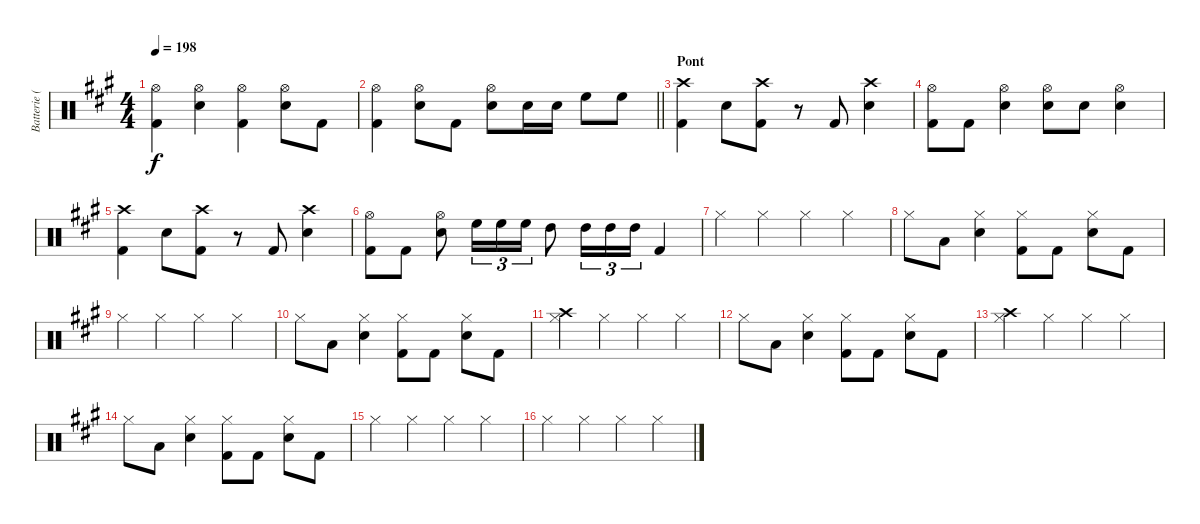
\track ("Batterie (Phil Roud)" "Batterie (") {instrument percussion}
\staff {score}
\articulation defaults
\ts (4 4)
\tempo 198
\clef neutral
\ks a
("Hi-Hat (open)" "Kick (hit) 2").4{dy f} ("Hi-Hat (open)" "Snare (hit) 2").4 ("Hi-Hat (open)" "Kick (hit) 2").4 ("Hi-Hat (open)" "Snare (hit) 2").8 "Kick (hit) 2".8 |
\barLineRight lightlight
("Hi-Hat (open)" "Kick (hit) 2").4 ("Hi-Hat (open)" "Snare (hit) 2").8 "Kick (hit) 2".8 ("Hi-Hat (open)" "Snare (hit) 2").8 "Snare (hit) 2".16 "Snare (hit) 2".16 "High Floor Tom (hit)".8 "High Floor Tom (hit)".8 |
\section ("" "Pont")
("Crash high (hit)" "Kick (hit) 2").4 "Snare (hit) 2".8 ("Crash high (hit)" "Kick (hit) 2").8 r.8 "Kick (hit) 2".8 ("Crash high (hit)" "Snare (hit) 2").4 |
("Hi-Hat (open)" "Kick (hit) 2").8 "Kick (hit) 2".8 ("Hi-Hat (open)" "Snare (hit) 2").4 ("Hi-Hat (open)" "Snare (hit) 2").8 "Snare (hit) 2".8 ("Hi-Hat (open)" "Snare (hit) 2").4 |
("Crash high (hit)" "Kick (hit) 2").4 "Snare (hit) 2".8 ("Crash high (hit)" "Kick (hit) 2").8 r.8 "Kick (hit) 2".8 ("Crash high (hit)" "Snare (hit) 2").4 |
("Hi-Hat (open)" "Kick (hit) 2").8 "Kick (hit) 2".8 ("Hi-Hat (open)" "Snare (hit) 2").8 "High Floor Tom (hit)".16{tu (3 2)} "High Floor Tom (hit)".16{tu (3 2)} "High Floor Tom (hit)".16{tu (3 2)} "High Tom (hit)".8 "High Tom (hit)".16{tu (3 2)} "High Tom (hit)".16{tu (3 2)} "High Tom (hit)".16{tu (3 2)} "Kick (hit) 2".4 |
"Hi-Hat (closed)".4 "Hi-Hat (closed)".4 "Hi-Hat (closed)".4 "Hi-Hat (closed)".4 |
"Hi-Hat (closed)".8 "Low Floor Tom (hit)".8 ("Snare (hit) 2" "Hi-Hat (closed)").4 ("Kick (hit) 2" "Hi-Hat (closed)").8 "Kick (hit) 2".8 ("Snare (hit) 2" "Hi-Hat (closed)").8 "Kick (hit) 2".8 |
"Hi-Hat (closed)".4 "Hi-Hat (closed)".4 "Hi-Hat (closed)".4 "Hi-Hat (closed)".4 |
"Hi-Hat (closed)".8 "Low Floor Tom (hit)".8 ("Snare (hit) 2" "Hi-Hat (closed)").4 ("Kick (hit) 2" "Hi-Hat (closed)").8 "Kick (hit) 2".8 ("Snare (hit) 2" "Hi-Hat (closed)").8 "Kick (hit) 2".8 |
("Crash high (hit)" "Hi-Hat (closed)").4 "Hi-Hat (closed)".4 "Hi-Hat (closed)".4 "Hi-Hat (closed)".4 |
"Hi-Hat (closed)".8 "Low Floor Tom (hit)".8 ("Snare (hit) 2" "Hi-Hat (closed)").4 ("Kick (hit) 2" "Hi-Hat (closed)").8 "Kick (hit) 2".8 ("Snare (hit) 2" "Hi-Hat (closed)").8 "Kick (hit) 2".8 |
("Crash high (hit)" "Hi-Hat (closed)").4 "Hi-Hat (closed)".4 "Hi-Hat (closed)".4 "Hi-Hat (closed)".4 |
"Hi-Hat (closed)".8 "Low Floor Tom (hit)".8 ("Snare (hit) 2" "Hi-Hat (closed)").4 ("Kick (hit) 2" "Hi-Hat (closed)").8 "Kick (hit) 2".8 ("Snare (hit) 2" "Hi-Hat (closed)").8 "Kick (hit) 2".8 |
"Hi-Hat (closed)".4 "Hi-Hat (closed)".4 "Hi-Hat (closed)".4 "Hi-Hat (closed)".4 |
"Hi-Hat (closed)".4 "Hi-Hat (closed)".4 "Hi-Hat (closed)".4 "Hi-Hat (closed)".4
